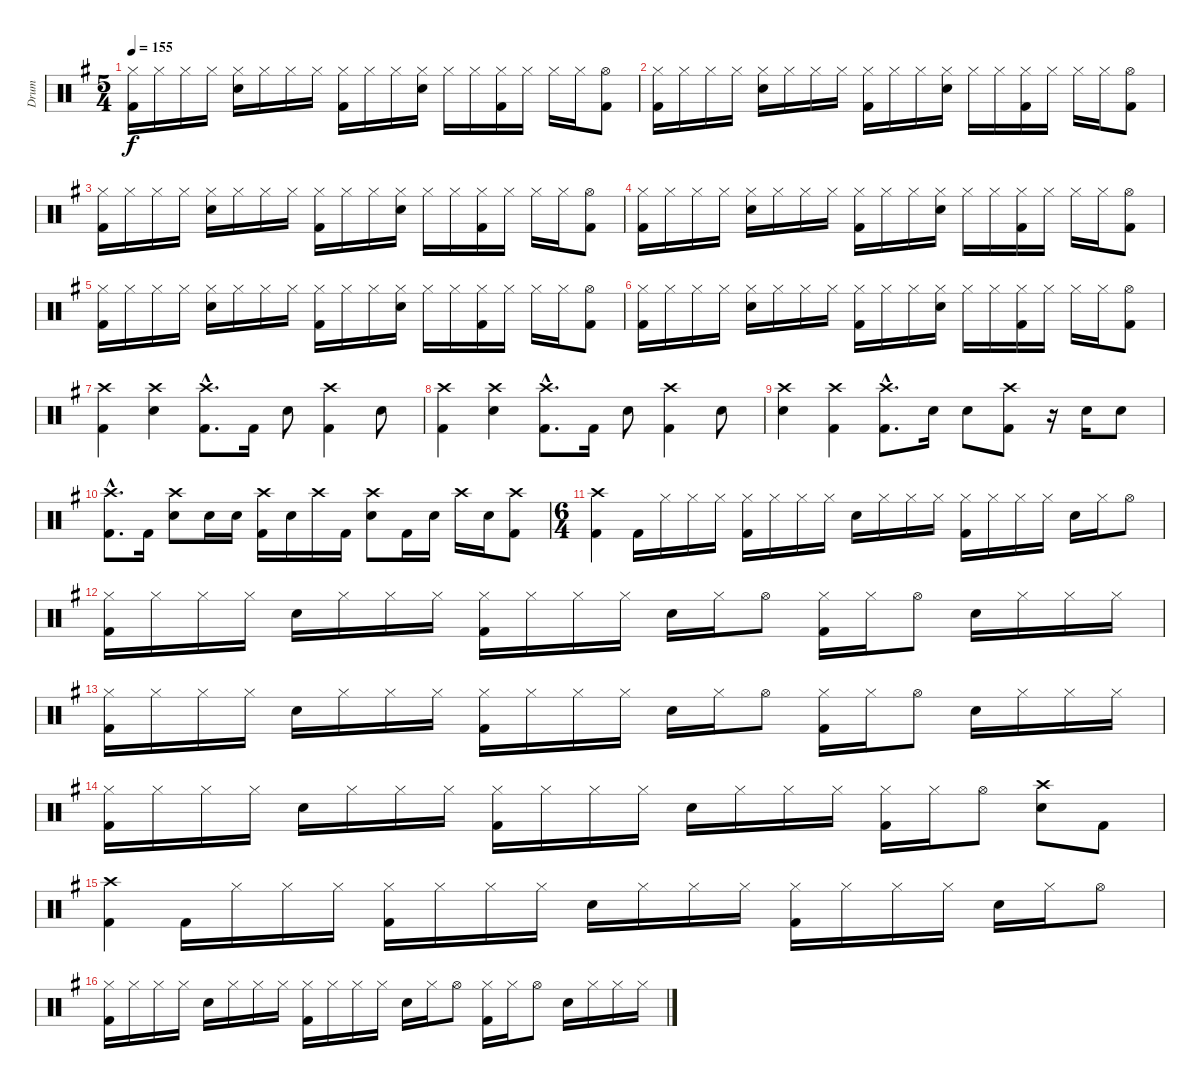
\track ("Drum" "Drum") {instrument percussion}
\staff {score}
\articulation defaults
\ts (5 4)
\tempo 155
\clef neutral
\ks g
("Hi-Hat (closed)" "Kick (hit) 2").16{dy f} "Hi-Hat (closed)".16 "Hi-Hat (closed)".16 "Hi-Hat (closed)".16 ("Hi-Hat (closed)" "Snare (hit) 2").16 "Hi-Hat (closed)".16 "Hi-Hat (closed)".16 "Hi-Hat (closed)".16 ("Hi-Hat (closed)" "Kick (hit) 2").16 "Hi-Hat (closed)".16 "Hi-Hat (closed)".16 ("Hi-Hat (closed)" "Snare (hit) 2").16 "Hi-Hat (closed)".16 "Hi-Hat (closed)".16 ("Hi-Hat (closed)" "Kick (hit) 2").16 "Hi-Hat (closed)".16 "Hi-Hat (closed)".16 "Hi-Hat (closed)".16 ("Hi-Hat (open)" "Kick (hit) 2").8 |
("Hi-Hat (closed)" "Kick (hit) 2").16 "Hi-Hat (closed)".16 "Hi-Hat (closed)".16 "Hi-Hat (closed)".16 ("Hi-Hat (closed)" "Snare (hit) 2").16 "Hi-Hat (closed)".16 "Hi-Hat (closed)".16 "Hi-Hat (closed)".16 ("Hi-Hat (closed)" "Kick (hit) 2").16 "Hi-Hat (closed)".16 "Hi-Hat (closed)".16 ("Hi-Hat (closed)" "Snare (hit) 2").16 "Hi-Hat (closed)".16 "Hi-Hat (closed)".16 ("Hi-Hat (closed)" "Kick (hit) 2").16 "Hi-Hat (closed)".16 "Hi-Hat (closed)".16 "Hi-Hat (closed)".16 ("Hi-Hat (open)" "Kick (hit) 2").8 |
("Hi-Hat (closed)" "Kick (hit) 2").16 "Hi-Hat (closed)".16 "Hi-Hat (closed)".16 "Hi-Hat (closed)".16 ("Hi-Hat (closed)" "Snare (hit) 2").16 "Hi-Hat (closed)".16 "Hi-Hat (closed)".16 "Hi-Hat (closed)".16 ("Hi-Hat (closed)" "Kick (hit) 2").16 "Hi-Hat (closed)".16 "Hi-Hat (closed)".16 ("Hi-Hat (closed)" "Snare (hit) 2").16 "Hi-Hat (closed)".16 "Hi-Hat (closed)".16 ("Hi-Hat (closed)" "Kick (hit) 2").16 "Hi-Hat (closed)".16 "Hi-Hat (closed)".16 "Hi-Hat (closed)".16 ("Hi-Hat (open)" "Kick (hit) 2").8 |
("Hi-Hat (closed)" "Kick (hit) 2").16 "Hi-Hat (closed)".16 "Hi-Hat (closed)".16 "Hi-Hat (closed)".16 ("Hi-Hat (closed)" "Snare (hit) 2").16 "Hi-Hat (closed)".16 "Hi-Hat (closed)".16 "Hi-Hat (closed)".16 ("Hi-Hat (closed)" "Kick (hit) 2").16 "Hi-Hat (closed)".16 "Hi-Hat (closed)".16 ("Hi-Hat (closed)" "Snare (hit) 2").16 "Hi-Hat (closed)".16 "Hi-Hat (closed)".16 ("Hi-Hat (closed)" "Kick (hit) 2").16 "Hi-Hat (closed)".16 "Hi-Hat (closed)".16 "Hi-Hat (closed)".16 ("Hi-Hat (open)" "Kick (hit) 2").8 |
("Hi-Hat (closed)" "Kick (hit) 2").16 "Hi-Hat (closed)".16 "Hi-Hat (closed)".16 "Hi-Hat (closed)".16 ("Hi-Hat (closed)" "Snare (hit) 2").16 "Hi-Hat (closed)".16 "Hi-Hat (closed)".16 "Hi-Hat (closed)".16 ("Hi-Hat (closed)" "Kick (hit) 2").16 "Hi-Hat (closed)".16 "Hi-Hat (closed)".16 ("Hi-Hat (closed)" "Snare (hit) 2").16 "Hi-Hat (closed)".16 "Hi-Hat (closed)".16 ("Hi-Hat (closed)" "Kick (hit) 2").16 "Hi-Hat (closed)".16 "Hi-Hat (closed)".16 "Hi-Hat (closed)".16 ("Hi-Hat (open)" "Kick (hit) 2").8 |
("Hi-Hat (closed)" "Kick (hit) 2").16 "Hi-Hat (closed)".16 "Hi-Hat (closed)".16 "Hi-Hat (closed)".16 ("Hi-Hat (closed)" "Snare (hit) 2").16 "Hi-Hat (closed)".16 "Hi-Hat (closed)".16 "Hi-Hat (closed)".16 ("Hi-Hat (closed)" "Kick (hit) 2").16 "Hi-Hat (closed)".16 "Hi-Hat (closed)".16 ("Hi-Hat (closed)" "Snare (hit) 2").16 "Hi-Hat (closed)".16 "Hi-Hat (closed)".16 ("Hi-Hat (closed)" "Kick (hit) 2").16 "Hi-Hat (closed)".16 "Hi-Hat (closed)".16 "Hi-Hat (closed)".16 ("Hi-Hat (open)" "Kick (hit) 2").8 |
("Crash high (hit)" "Kick (hit) 2").4 ("Crash high (hit)" "Snare (hit) 2").4 ("Crash high (hit)"{hac} "Kick (hit) 2"{hac}).8{d} "Kick (hit) 2".16 "Snare (hit) 2".8 ("Crash high (hit)" "Kick (hit) 2").4 "Snare (hit) 2".8 |
("Crash high (hit)" "Kick (hit) 2").4 ("Crash high (hit)" "Snare (hit) 2").4 ("Crash high (hit)"{hac} "Kick (hit) 2"{hac}).8{d} "Kick (hit) 2".16 "Snare (hit) 2".8 ("Crash high (hit)" "Kick (hit) 2").4 "Snare (hit) 2".8 |
("Crash high (hit)" "Snare (hit) 2").4 ("Crash high (hit)" "Kick (hit) 2").4 ("Crash high (hit)"{hac} "Kick (hit) 2"{hac}).8{d} "Snare (hit) 2".16 "Snare (hit) 2".8 ("Crash high (hit)" "Kick (hit) 2").8 r.16 "Snare (hit) 2".16 "Snare (hit) 2".8 |
("Crash high (hit)"{hac} "Kick (hit) 2"{hac}).8{d} "Kick (hit) 2".16 ("Crash high (hit)" "Snare (hit) 2").8 "Snare (hit) 2".16 "Snare (hit) 2".16 ("Crash high (hit)" "Kick (hit) 2").16 "Snare (hit) 2".16 "Crash high (hit)".16 "Kick (hit) 2".16 ("Crash high (hit)" "Snare (hit) 2").8 "Kick (hit) 2".16 "Snare (hit) 2".16 "Crash high (hit)".16 "Snare (hit) 2".16 ("Crash high (hit)" "Kick (hit) 2").8 |
\ts (6 4)
("Crash high (hit)" "Kick (hit) 2").4 "Kick (hit) 2".16 "Hi-Hat (closed)".16 "Hi-Hat (closed)".16 "Hi-Hat (closed)".16 ("Hi-Hat (closed)" "Kick (hit) 2").16 "Hi-Hat (closed)".16 "Hi-Hat (closed)".16 "Hi-Hat (closed)".16 "Snare (hit) 2".16 "Hi-Hat (closed)".16 "Hi-Hat (closed)".16 "Hi-Hat (closed)".16 ("Hi-Hat (closed)" "Kick (hit) 2").16 "Hi-Hat (closed)".16 "Hi-Hat (closed)".16 "Hi-Hat (closed)".16 "Snare (hit) 2".16 "Hi-Hat (closed)".16 "Hi-Hat (open)".8 |
("Hi-Hat (closed)" "Kick (hit) 2").16 "Hi-Hat (closed)".16 "Hi-Hat (closed)".16 "Hi-Hat (closed)".16 "Snare (hit) 2".16 "Hi-Hat (closed)".16 "Hi-Hat (closed)".16 "Hi-Hat (closed)".16 ("Hi-Hat (closed)" "Kick (hit) 2").16 "Hi-Hat (closed)".16 "Hi-Hat (closed)".16 "Hi-Hat (closed)".16 "Snare (hit) 2".16 "Hi-Hat (closed)".16 "Hi-Hat (open)".8 ("Hi-Hat (closed)" "Kick (hit) 2").16 "Hi-Hat (closed)".16 "Hi-Hat (open)".8 "Snare (hit) 2".16 "Hi-Hat (closed)".16 "Hi-Hat (closed)".16 "Hi-Hat (closed)".16 |
("Hi-Hat (closed)" "Kick (hit) 2").16 "Hi-Hat (closed)".16 "Hi-Hat (closed)".16 "Hi-Hat (closed)".16 "Snare (hit) 2".16 "Hi-Hat (closed)".16 "Hi-Hat (closed)".16 "Hi-Hat (closed)".16 ("Hi-Hat (closed)" "Kick (hit) 2").16 "Hi-Hat (closed)".16 "Hi-Hat (closed)".16 "Hi-Hat (closed)".16 "Snare (hit) 2".16 "Hi-Hat (closed)".16 "Hi-Hat (open)".8 ("Hi-Hat (closed)" "Kick (hit) 2").16 "Hi-Hat (closed)".16 "Hi-Hat (open)".8 "Snare (hit) 2".16 "Hi-Hat (closed)".16 "Hi-Hat (closed)".16 "Hi-Hat (closed)".16 |
("Hi-Hat (closed)" "Kick (hit) 2").16 "Hi-Hat (closed)".16 "Hi-Hat (closed)".16 "Hi-Hat (closed)".16 "Snare (hit) 2".16 "Hi-Hat (closed)".16 "Hi-Hat (closed)".16 "Hi-Hat (closed)".16 ("Hi-Hat (closed)" "Kick (hit) 2").16 "Hi-Hat (closed)".16 "Hi-Hat (closed)".16 "Hi-Hat (closed)".16 "Snare (hit) 2".16 "Hi-Hat (closed)".16 "Hi-Hat (closed)".16 "Hi-Hat (closed)".16 ("Hi-Hat (closed)" "Kick (hit) 2").16 "Hi-Hat (closed)".16 "Hi-Hat (open)".8 ("Crash high (hit)" "Snare (hit) 2").8 "Kick (hit) 2".8 |
("Crash high (hit)" "Kick (hit) 2").4 "Kick (hit) 2".16 "Hi-Hat (closed)".16 "Hi-Hat (closed)".16 "Hi-Hat (closed)".16 ("Hi-Hat (closed)" "Kick (hit) 2").16 "Hi-Hat (closed)".16 "Hi-Hat (closed)".16 "Hi-Hat (closed)".16 "Snare (hit) 2".16 "Hi-Hat (closed)".16 "Hi-Hat (closed)".16 "Hi-Hat (closed)".16 ("Hi-Hat (closed)" "Kick (hit) 2").16 "Hi-Hat (closed)".16 "Hi-Hat (closed)".16 "Hi-Hat (closed)".16 "Snare (hit) 2".16 "Hi-Hat (closed)".16 "Hi-Hat (open)".8 |
("Hi-Hat (closed)" "Kick (hit) 2").16 "Hi-Hat (closed)".16 "Hi-Hat (closed)".16 "Hi-Hat (closed)".16 "Snare (hit) 2".16 "Hi-Hat (closed)".16 "Hi-Hat (closed)".16 "Hi-Hat (closed)".16 ("Hi-Hat (closed)" "Kick (hit) 2").16 "Hi-Hat (closed)".16 "Hi-Hat (closed)".16 "Hi-Hat (closed)".16 "Snare (hit) 2".16 "Hi-Hat (closed)".16 "Hi-Hat (open)".8 ("Hi-Hat (closed)" "Kick (hit) 2").16 "Hi-Hat (closed)".16 "Hi-Hat (open)".8 "Snare (hit) 2".16 "Hi-Hat (closed)".16 "Hi-Hat (closed)".16 "Hi-Hat (closed)".16
